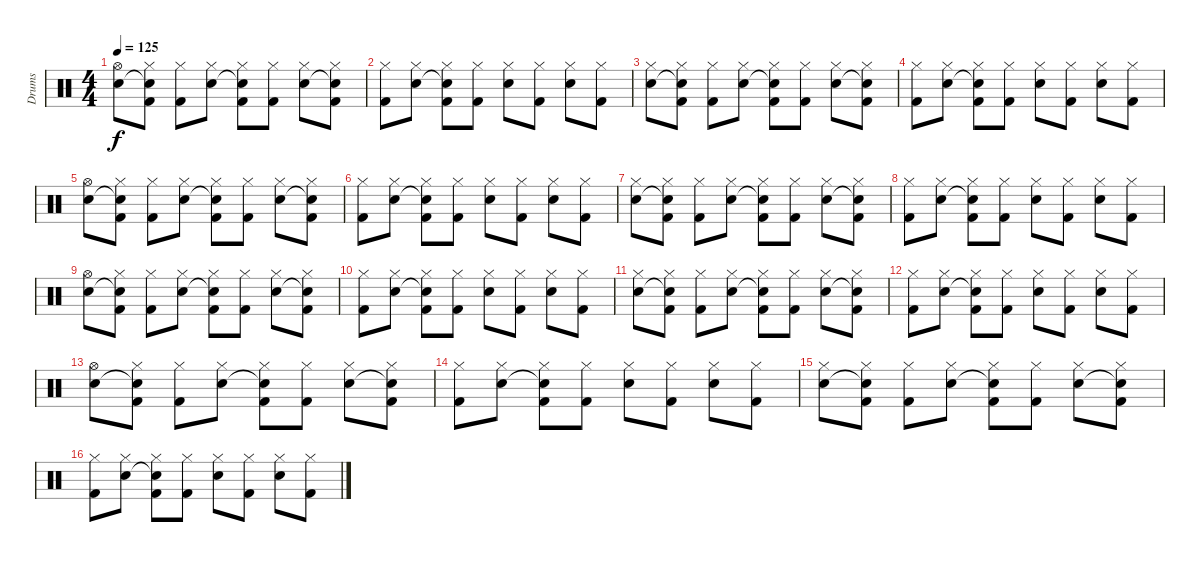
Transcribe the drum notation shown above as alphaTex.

\track ("Drums" "Drums") {instrument percussion}
\staff {score}
\articulation defaults
\ts (4 4)
\tempo 125
\clef neutral
\ks c
("Hi-Hat (open)" "Snare (hit) 2").8{dy f volume 10} ("Hi-Hat (closed)" "Snare (hit) 2"{t} "Kick (hit) 2").8 ("Hi-Hat (closed)" "Kick (hit) 2").8 ("Hi-Hat (closed)" "Snare (hit) 2").8 ("Hi-Hat (closed)" "Snare (hit) 2"{t} "Kick (hit) 2").8 ("Hi-Hat (closed)" "Kick (hit) 2").8 ("Hi-Hat (closed)" "Snare (hit) 2").8 ("Hi-Hat (closed)" "Snare (hit) 2"{t} "Kick (hit) 2").8 |
("Hi-Hat (closed)" "Kick (hit) 2").8 ("Hi-Hat (closed)" "Snare (hit) 2").8 ("Hi-Hat (closed)" "Snare (hit) 2"{t} "Kick (hit) 2").8 ("Hi-Hat (closed)" "Kick (hit) 2").8 ("Hi-Hat (closed)" "Snare (hit) 2").8 ("Hi-Hat (closed)" "Kick (hit) 2").8 ("Hi-Hat (closed)" "Snare (hit) 2").8 ("Hi-Hat (closed)" "Kick (hit) 2").8 |
("Hi-Hat (closed)" "Snare (hit) 2").8 ("Hi-Hat (closed)" "Snare (hit) 2"{t} "Kick (hit) 2").8 ("Hi-Hat (closed)" "Kick (hit) 2").8 ("Hi-Hat (closed)" "Snare (hit) 2").8 ("Hi-Hat (closed)" "Snare (hit) 2"{t} "Kick (hit) 2").8 ("Hi-Hat (closed)" "Kick (hit) 2").8 ("Hi-Hat (closed)" "Snare (hit) 2").8 ("Hi-Hat (closed)" "Snare (hit) 2"{t} "Kick (hit) 2").8 |
("Hi-Hat (closed)" "Kick (hit) 2").8 ("Hi-Hat (closed)" "Snare (hit) 2").8 ("Hi-Hat (closed)" "Snare (hit) 2"{t} "Kick (hit) 2").8 ("Hi-Hat (closed)" "Kick (hit) 2").8 ("Hi-Hat (closed)" "Snare (hit) 2").8 ("Hi-Hat (closed)" "Kick (hit) 2").8 ("Hi-Hat (closed)" "Snare (hit) 2").8 ("Hi-Hat (closed)" "Kick (hit) 2").8 |
("Hi-Hat (open)" "Snare (hit) 2").8{volume 8} ("Hi-Hat (closed)" "Snare (hit) 2"{t} "Kick (hit) 2").8 ("Hi-Hat (closed)" "Kick (hit) 2").8 ("Hi-Hat (closed)" "Snare (hit) 2").8 ("Hi-Hat (closed)" "Snare (hit) 2"{t} "Kick (hit) 2").8 ("Hi-Hat (closed)" "Kick (hit) 2").8 ("Hi-Hat (closed)" "Snare (hit) 2").8 ("Hi-Hat (closed)" "Snare (hit) 2"{t} "Kick (hit) 2").8 |
("Hi-Hat (closed)" "Kick (hit) 2").8 ("Hi-Hat (closed)" "Snare (hit) 2").8 ("Hi-Hat (closed)" "Snare (hit) 2"{t} "Kick (hit) 2").8 ("Hi-Hat (closed)" "Kick (hit) 2").8 ("Hi-Hat (closed)" "Snare (hit) 2").8 ("Hi-Hat (closed)" "Kick (hit) 2").8 ("Hi-Hat (closed)" "Snare (hit) 2").8 ("Hi-Hat (closed)" "Kick (hit) 2").8 |
("Hi-Hat (closed)" "Snare (hit) 2").8 ("Hi-Hat (closed)" "Snare (hit) 2"{t} "Kick (hit) 2").8 ("Hi-Hat (closed)" "Kick (hit) 2").8 ("Hi-Hat (closed)" "Snare (hit) 2").8 ("Hi-Hat (closed)" "Snare (hit) 2"{t} "Kick (hit) 2").8 ("Hi-Hat (closed)" "Kick (hit) 2").8 ("Hi-Hat (closed)" "Snare (hit) 2").8 ("Hi-Hat (closed)" "Snare (hit) 2"{t} "Kick (hit) 2").8 |
("Hi-Hat (closed)" "Kick (hit) 2").8 ("Hi-Hat (closed)" "Snare (hit) 2").8 ("Hi-Hat (closed)" "Snare (hit) 2"{t} "Kick (hit) 2").8 ("Hi-Hat (closed)" "Kick (hit) 2").8 ("Hi-Hat (closed)" "Snare (hit) 2").8 ("Hi-Hat (closed)" "Kick (hit) 2").8 ("Hi-Hat (closed)" "Snare (hit) 2").8 ("Hi-Hat (closed)" "Kick (hit) 2").8 |
("Hi-Hat (open)" "Snare (hit) 2").8{volume 5} ("Hi-Hat (closed)" "Snare (hit) 2"{t} "Kick (hit) 2").8 ("Hi-Hat (closed)" "Kick (hit) 2").8 ("Hi-Hat (closed)" "Snare (hit) 2").8 ("Hi-Hat (closed)" "Snare (hit) 2"{t} "Kick (hit) 2").8 ("Hi-Hat (closed)" "Kick (hit) 2").8 ("Hi-Hat (closed)" "Snare (hit) 2").8 ("Hi-Hat (closed)" "Snare (hit) 2"{t} "Kick (hit) 2").8 |
("Hi-Hat (closed)" "Kick (hit) 2").8 ("Hi-Hat (closed)" "Snare (hit) 2").8 ("Hi-Hat (closed)" "Snare (hit) 2"{t} "Kick (hit) 2").8 ("Hi-Hat (closed)" "Kick (hit) 2").8 ("Hi-Hat (closed)" "Snare (hit) 2").8 ("Hi-Hat (closed)" "Kick (hit) 2").8 ("Hi-Hat (closed)" "Snare (hit) 2").8 ("Hi-Hat (closed)" "Kick (hit) 2").8 |
("Hi-Hat (closed)" "Snare (hit) 2").8 ("Hi-Hat (closed)" "Snare (hit) 2"{t} "Kick (hit) 2").8 ("Hi-Hat (closed)" "Kick (hit) 2").8 ("Hi-Hat (closed)" "Snare (hit) 2").8 ("Hi-Hat (closed)" "Snare (hit) 2"{t} "Kick (hit) 2").8 ("Hi-Hat (closed)" "Kick (hit) 2").8 ("Hi-Hat (closed)" "Snare (hit) 2").8 ("Hi-Hat (closed)" "Snare (hit) 2"{t} "Kick (hit) 2").8 |
("Hi-Hat (closed)" "Kick (hit) 2").8 ("Hi-Hat (closed)" "Snare (hit) 2").8 ("Hi-Hat (closed)" "Snare (hit) 2"{t} "Kick (hit) 2").8 ("Hi-Hat (closed)" "Kick (hit) 2").8 ("Hi-Hat (closed)" "Snare (hit) 2").8 ("Hi-Hat (closed)" "Kick (hit) 2").8 ("Hi-Hat (closed)" "Snare (hit) 2").8 ("Hi-Hat (closed)" "Kick (hit) 2").8 |
("Hi-Hat (open)" "Snare (hit) 2").8{volume 6} ("Hi-Hat (closed)" "Snare (hit) 2"{t} "Kick (hit) 2").8 ("Hi-Hat (closed)" "Kick (hit) 2").8 ("Hi-Hat (closed)" "Snare (hit) 2").8 ("Hi-Hat (closed)" "Snare (hit) 2"{t} "Kick (hit) 2").8 ("Hi-Hat (closed)" "Kick (hit) 2").8 ("Hi-Hat (closed)" "Snare (hit) 2").8 ("Hi-Hat (closed)" "Snare (hit) 2"{t} "Kick (hit) 2").8 |
("Hi-Hat (closed)" "Kick (hit) 2").8 ("Hi-Hat (closed)" "Snare (hit) 2").8 ("Hi-Hat (closed)" "Snare (hit) 2"{t} "Kick (hit) 2").8 ("Hi-Hat (closed)" "Kick (hit) 2").8 ("Hi-Hat (closed)" "Snare (hit) 2").8 ("Hi-Hat (closed)" "Kick (hit) 2").8 ("Hi-Hat (closed)" "Snare (hit) 2").8 ("Hi-Hat (closed)" "Kick (hit) 2").8 |
("Hi-Hat (closed)" "Snare (hit) 2").8 ("Hi-Hat (closed)" "Snare (hit) 2"{t} "Kick (hit) 2").8 ("Hi-Hat (closed)" "Kick (hit) 2").8 ("Hi-Hat (closed)" "Snare (hit) 2").8 ("Hi-Hat (closed)" "Snare (hit) 2"{t} "Kick (hit) 2").8 ("Hi-Hat (closed)" "Kick (hit) 2").8 ("Hi-Hat (closed)" "Snare (hit) 2").8 ("Hi-Hat (closed)" "Snare (hit) 2"{t} "Kick (hit) 2").8 |
("Hi-Hat (closed)" "Kick (hit) 2").8{volume 4} ("Hi-Hat (closed)" "Snare (hit) 2").8 ("Hi-Hat (closed)" "Snare (hit) 2"{t} "Kick (hit) 2").8 ("Hi-Hat (closed)" "Kick (hit) 2").8 ("Hi-Hat (closed)" "Snare (hit) 2").8 ("Hi-Hat (closed)" "Kick (hit) 2").8 ("Hi-Hat (closed)" "Snare (hit) 2").8 ("Hi-Hat (closed)" "Kick (hit) 2").8
